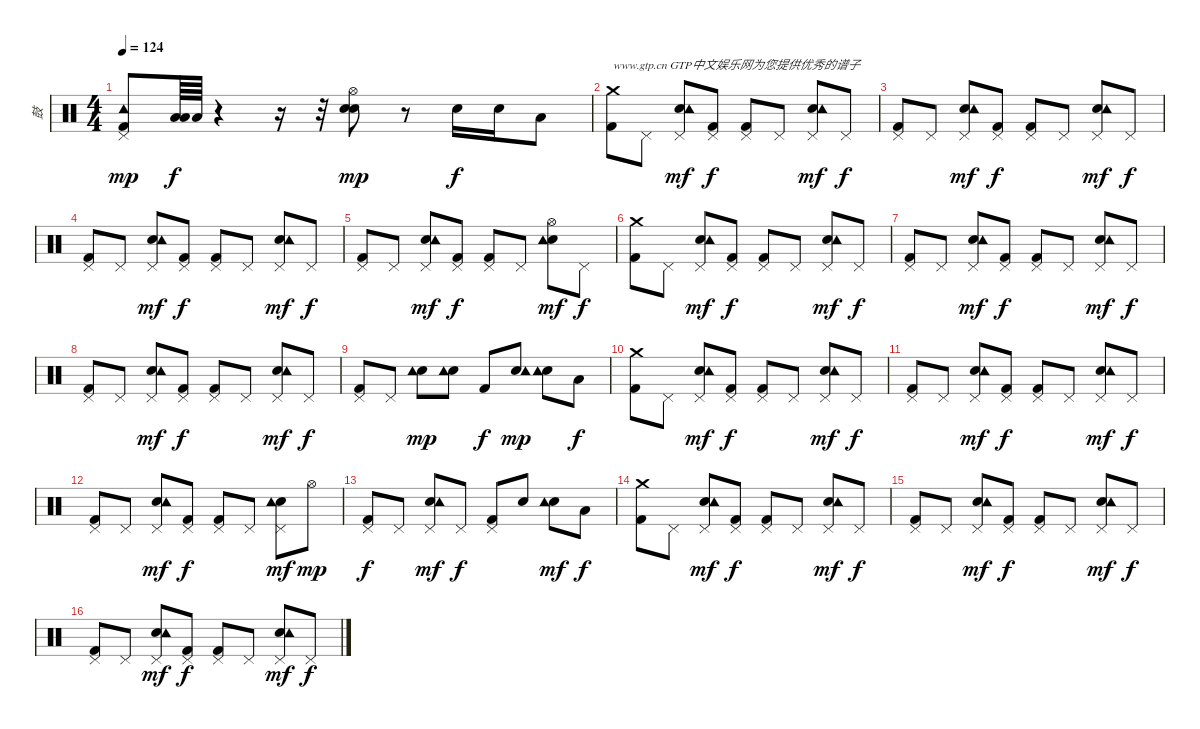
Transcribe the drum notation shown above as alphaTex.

\track ("鼓" "鼓") {instrument percussion}
\staff {score}
\articulation defaults
\ts (4 4)
\tempo 124
\clef neutral
\ks c
("Kick (hit) 2" "Pedal Hi-Hat (hit)" "Tambourine (hit)").8{dy mp} ("Low Tom (hit)" "Low Tom (hit)").64{dy f} "Low Tom (hit)".64 r.4 r.16 r.32 ("Electric Snare (hit)" "Electric Snare (hit)" "Hi-Hat (open)").8{dy mp} r.8 "Electric Snare (hit)".16{dy f} "Electric Snare (hit)".16 "Low Tom (hit)".8 |
("Kick (hit) 2" "Crash medium (hit)").8{txt "www.gtp.cn GTP中文娱乐网为您提供优秀的谱子"} "Pedal Hi-Hat (hit)".8 ("Electric Snare (hit)" "Pedal Hi-Hat (hit)" "Tambourine (hit)").8{dy mf} ("Kick (hit) 2" "Pedal Hi-Hat (hit)").8{dy f} ("Kick (hit) 2" "Pedal Hi-Hat (hit)").8 "Pedal Hi-Hat (hit)".8 ("Electric Snare (hit)" "Pedal Hi-Hat (hit)" "Tambourine (hit)").8{dy mf} "Pedal Hi-Hat (hit)".8{dy f} |
("Kick (hit) 2" "Pedal Hi-Hat (hit)").8 "Pedal Hi-Hat (hit)".8 ("Electric Snare (hit)" "Pedal Hi-Hat (hit)" "Tambourine (hit)").8{dy mf} ("Kick (hit) 2" "Pedal Hi-Hat (hit)").8{dy f} ("Kick (hit) 2" "Pedal Hi-Hat (hit)").8 "Pedal Hi-Hat (hit)".8 ("Electric Snare (hit)" "Pedal Hi-Hat (hit)" "Tambourine (hit)").8{dy mf} "Pedal Hi-Hat (hit)".8{dy f} |
("Kick (hit) 2" "Pedal Hi-Hat (hit)").8 "Pedal Hi-Hat (hit)".8 ("Electric Snare (hit)" "Pedal Hi-Hat (hit)" "Tambourine (hit)").8{dy mf} ("Kick (hit) 2" "Pedal Hi-Hat (hit)").8{dy f} ("Kick (hit) 2" "Pedal Hi-Hat (hit)").8 "Pedal Hi-Hat (hit)".8 ("Electric Snare (hit)" "Pedal Hi-Hat (hit)" "Tambourine (hit)").8{dy mf} "Pedal Hi-Hat (hit)".8{dy f} |
("Kick (hit) 2" "Pedal Hi-Hat (hit)").8 "Pedal Hi-Hat (hit)".8 ("Electric Snare (hit)" "Pedal Hi-Hat (hit)" "Tambourine (hit)").8{dy mf} ("Kick (hit) 2" "Pedal Hi-Hat (hit)").8{dy f} ("Kick (hit) 2" "Pedal Hi-Hat (hit)").8 "Pedal Hi-Hat (hit)".8 ("Electric Snare (hit)" "Hi-Hat (open)" "Tambourine (hit)").8{dy mf} "Pedal Hi-Hat (hit)".8{dy f} |
("Kick (hit) 2" "Crash medium (hit)").8 "Pedal Hi-Hat (hit)".8 ("Electric Snare (hit)" "Pedal Hi-Hat (hit)" "Tambourine (hit)").8{dy mf} ("Kick (hit) 2" "Pedal Hi-Hat (hit)").8{dy f} ("Kick (hit) 2" "Pedal Hi-Hat (hit)").8 "Pedal Hi-Hat (hit)".8 ("Electric Snare (hit)" "Pedal Hi-Hat (hit)" "Tambourine (hit)").8{dy mf} "Pedal Hi-Hat (hit)".8{dy f} |
("Kick (hit) 2" "Pedal Hi-Hat (hit)").8 "Pedal Hi-Hat (hit)".8 ("Electric Snare (hit)" "Pedal Hi-Hat (hit)" "Tambourine (hit)").8{dy mf} ("Kick (hit) 2" "Pedal Hi-Hat (hit)").8{dy f} ("Kick (hit) 2" "Pedal Hi-Hat (hit)").8 "Pedal Hi-Hat (hit)".8 ("Electric Snare (hit)" "Pedal Hi-Hat (hit)" "Tambourine (hit)").8{dy mf} "Pedal Hi-Hat (hit)".8{dy f} |
("Kick (hit) 2" "Pedal Hi-Hat (hit)").8 "Pedal Hi-Hat (hit)".8 ("Electric Snare (hit)" "Pedal Hi-Hat (hit)" "Tambourine (hit)").8{dy mf} ("Kick (hit) 2" "Pedal Hi-Hat (hit)").8{dy f} ("Kick (hit) 2" "Pedal Hi-Hat (hit)").8 "Pedal Hi-Hat (hit)".8 ("Electric Snare (hit)" "Pedal Hi-Hat (hit)" "Tambourine (hit)").8{dy mf} "Pedal Hi-Hat (hit)".8{dy f} |
("Kick (hit) 2" "Pedal Hi-Hat (hit)").8 "Pedal Hi-Hat (hit)".8 ("Electric Snare (hit)" "Tambourine (hit)").8{dy mp} ("Electric Snare (hit)" "Tambourine (hit)").8 "Kick (hit) 2".8{dy f} ("Electric Snare (hit)" "Tambourine (hit)").8{dy mp} ("Electric Snare (hit)" "Tambourine (hit)").8 "Low Tom (hit)".8{dy f} |
("Kick (hit) 2" "Crash medium (hit)").8 "Pedal Hi-Hat (hit)".8 ("Electric Snare (hit)" "Pedal Hi-Hat (hit)" "Tambourine (hit)").8{dy mf} ("Kick (hit) 2" "Pedal Hi-Hat (hit)").8{dy f} ("Kick (hit) 2" "Pedal Hi-Hat (hit)").8 "Pedal Hi-Hat (hit)".8 ("Electric Snare (hit)" "Pedal Hi-Hat (hit)" "Tambourine (hit)").8{dy mf} "Pedal Hi-Hat (hit)".8{dy f} |
("Kick (hit) 2" "Pedal Hi-Hat (hit)").8 "Pedal Hi-Hat (hit)".8 ("Electric Snare (hit)" "Pedal Hi-Hat (hit)" "Tambourine (hit)").8{dy mf} ("Kick (hit) 2" "Pedal Hi-Hat (hit)").8{dy f} ("Kick (hit) 2" "Pedal Hi-Hat (hit)").8 "Pedal Hi-Hat (hit)".8 ("Electric Snare (hit)" "Pedal Hi-Hat (hit)" "Tambourine (hit)").8{dy mf} "Pedal Hi-Hat (hit)".8{dy f} |
("Kick (hit) 2" "Pedal Hi-Hat (hit)").8 "Pedal Hi-Hat (hit)".8 ("Electric Snare (hit)" "Pedal Hi-Hat (hit)" "Tambourine (hit)").8{dy mf} ("Kick (hit) 2" "Pedal Hi-Hat (hit)").8{dy f} ("Kick (hit) 2" "Pedal Hi-Hat (hit)").8 "Pedal Hi-Hat (hit)".8 ("Electric Snare (hit)" "Pedal Hi-Hat (hit)" "Tambourine (hit)").8{dy mf} "Hi-Hat (open)".8{dy mp} |
("Kick (hit) 2" "Pedal Hi-Hat (hit)").8{dy f} "Pedal Hi-Hat (hit)".8 ("Electric Snare (hit)" "Pedal Hi-Hat (hit)" "Tambourine (hit)").8{dy mf} "Pedal Hi-Hat (hit)".8{dy f} ("Kick (hit) 2" "Pedal Hi-Hat (hit)").8 "Electric Snare (hit)".8 ("Electric Snare (hit)" "Tambourine (hit)").8{dy mf} "Low Tom (hit)".8{dy f} |
("Kick (hit) 2" "Crash medium (hit)").8 "Pedal Hi-Hat (hit)".8 ("Electric Snare (hit)" "Pedal Hi-Hat (hit)" "Tambourine (hit)").8{dy mf} ("Kick (hit) 2" "Pedal Hi-Hat (hit)").8{dy f} ("Kick (hit) 2" "Pedal Hi-Hat (hit)").8 "Pedal Hi-Hat (hit)".8 ("Electric Snare (hit)" "Pedal Hi-Hat (hit)" "Tambourine (hit)").8{dy mf} "Pedal Hi-Hat (hit)".8{dy f} |
("Kick (hit) 2" "Pedal Hi-Hat (hit)").8 "Pedal Hi-Hat (hit)".8 ("Electric Snare (hit)" "Pedal Hi-Hat (hit)" "Tambourine (hit)").8{dy mf} ("Kick (hit) 2" "Pedal Hi-Hat (hit)").8{dy f} ("Kick (hit) 2" "Pedal Hi-Hat (hit)").8 "Pedal Hi-Hat (hit)".8 ("Electric Snare (hit)" "Pedal Hi-Hat (hit)" "Tambourine (hit)").8{dy mf} "Pedal Hi-Hat (hit)".8{dy f} |
("Kick (hit) 2" "Pedal Hi-Hat (hit)").8 "Pedal Hi-Hat (hit)".8 ("Electric Snare (hit)" "Pedal Hi-Hat (hit)" "Tambourine (hit)").8{dy mf} ("Kick (hit) 2" "Pedal Hi-Hat (hit)").8{dy f} ("Kick (hit) 2" "Pedal Hi-Hat (hit)").8 "Pedal Hi-Hat (hit)".8 ("Electric Snare (hit)" "Pedal Hi-Hat (hit)" "Tambourine (hit)").8{dy mf} "Pedal Hi-Hat (hit)".8{dy f}
